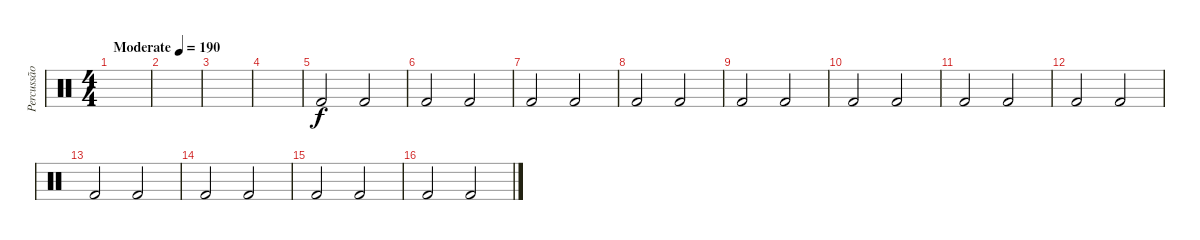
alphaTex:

\track ("Percussão" "Percussão") {instrument percussion}
\staff {score}
\articulation defaults
\ts (4 4)
\tempo (190 "Moderate")
\clef neutral
\ks c
|
|
|
|
"Kick (hit) 2".2 "Kick (hit) 2".2 |
"Kick (hit) 2".2 "Kick (hit) 2".2 |
"Kick (hit) 2".2 "Kick (hit) 2".2 |
"Kick (hit) 2".2 "Kick (hit) 2".2 |
"Kick (hit) 2".2 "Kick (hit) 2".2 |
"Kick (hit) 2".2 "Kick (hit) 2".2 |
"Kick (hit) 2".2 "Kick (hit) 2".2 |
"Kick (hit) 2".2 "Kick (hit) 2".2 |
"Kick (hit) 2".2 "Kick (hit) 2".2 |
"Kick (hit) 2".2 "Kick (hit) 2".2 |
"Kick (hit) 2".2 "Kick (hit) 2".2 |
"Kick (hit) 2".2 "Kick (hit) 2".2
